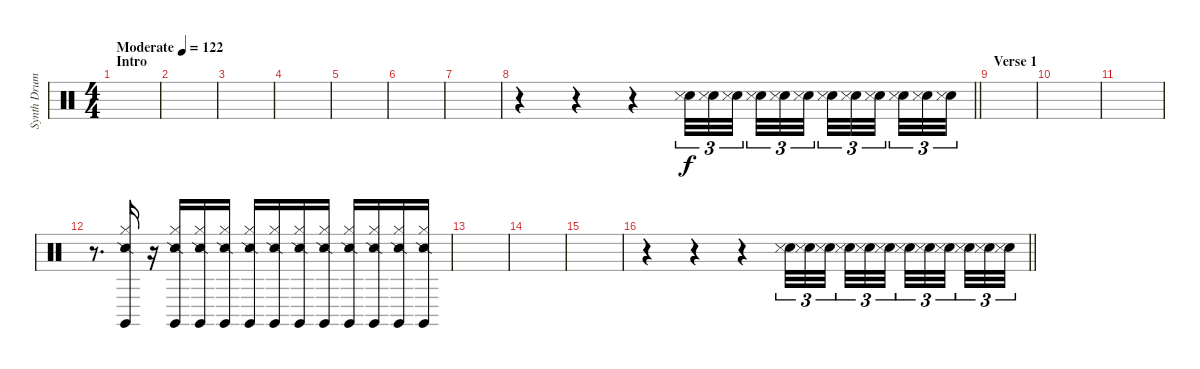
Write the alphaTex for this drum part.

\track ("Synth Drums" "Synth Drum") {instrument percussion}
\staff {score}
\articulation defaults
\ts (4 4)
\section ("" "Intro")
\tempo (122 "Moderate")
\clef neutral
\ks c
|
|
|
|
|
|
|
\barLineRight lightlight
r.4 r.4 r.4 ("Hand Clap (hit)" "Metronome (hit)").32{tu (3 2)} ("Hand Clap (hit)" "Metronome (hit)").32{tu (3 2)} ("Hand Clap (hit)" "Metronome (hit)").32{tu (3 2) beam splitsecondary} ("Hand Clap (hit)" "Metronome (hit)").32{tu (3 2)} ("Hand Clap (hit)" "Metronome (hit)").32{tu (3 2)} ("Hand Clap (hit)" "Metronome (hit)").32{tu (3 2) beam splitsecondary} ("Hand Clap (hit)" "Metronome (hit)").32{tu (3 2)} ("Hand Clap (hit)" "Metronome (hit)").32{tu (3 2)} ("Hand Clap (hit)" "Metronome (hit)").32{tu (3 2) beam splitsecondary} ("Hand Clap (hit)" "Metronome (hit)").32{tu (3 2)} ("Hand Clap (hit)" "Metronome (hit)").32{tu (3 2)} ("Hand Clap (hit)" "Metronome (hit)").32{tu (3 2)} |
\section ("" "Verse 1")
|
|
|
r.8{d} ("Hi-Hat (closed)" "Snare (side stick) 2" "Claves (hit)").16 r.16 ("Hi-Hat (closed)" "Snare (side stick) 2" "Claves (hit)").16 ("Hi-Hat (closed)" "Snare (side stick) 2" "Claves (hit)").16 ("Hi-Hat (closed)" "Snare (side stick) 2" "Claves (hit)").16 ("Hi-Hat (closed)" "Snare (side stick) 2" "Claves (hit)").16 ("Hi-Hat (closed)" "Snare (side stick) 2" "Claves (hit)").16 ("Hi-Hat (closed)" "Snare (side stick) 2" "Claves (hit)").16 ("Hi-Hat (closed)" "Snare (side stick) 2" "Claves (hit)").16 ("Hi-Hat (closed)" "Snare (side stick) 2" "Claves (hit)").16 ("Hi-Hat (closed)" "Snare (side stick) 2" "Claves (hit)").16 ("Hi-Hat (closed)" "Snare (side stick) 2" "Claves (hit)").16 ("Hi-Hat (closed)" "Snare (side stick) 2" "Claves (hit)").16 |
|
|
|
\barLineRight lightlight
r.4 r.4 r.4 ("Hand Clap (hit)" "Metronome (hit)").32{tu (3 2)} ("Hand Clap (hit)" "Metronome (hit)").32{tu (3 2)} ("Hand Clap (hit)" "Metronome (hit)").32{tu (3 2) beam splitsecondary} ("Hand Clap (hit)" "Metronome (hit)").32{tu (3 2)} ("Hand Clap (hit)" "Metronome (hit)").32{tu (3 2)} ("Hand Clap (hit)" "Metronome (hit)").32{tu (3 2) beam splitsecondary} ("Hand Clap (hit)" "Metronome (hit)").32{tu (3 2)} ("Hand Clap (hit)" "Metronome (hit)").32{tu (3 2)} ("Hand Clap (hit)" "Metronome (hit)").32{tu (3 2) beam splitsecondary} ("Hand Clap (hit)" "Metronome (hit)").32{tu (3 2)} ("Hand Clap (hit)" "Metronome (hit)").32{tu (3 2)} ("Hand Clap (hit)" "Metronome (hit)").32{tu (3 2)}
